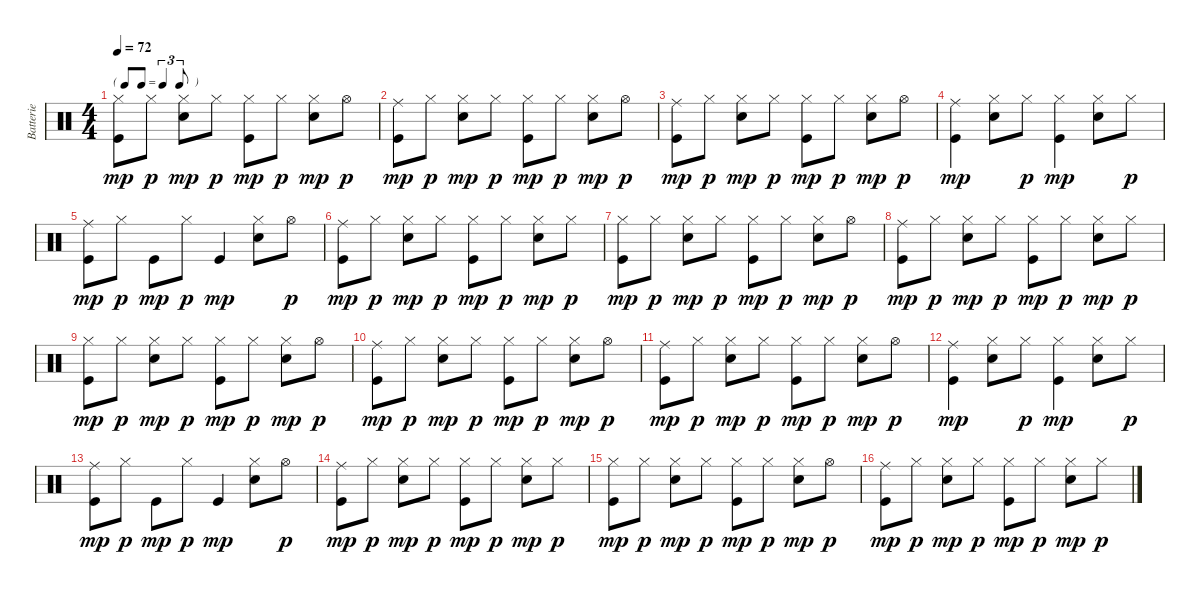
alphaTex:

\track ("Batterie" "Batterie") {instrument percussion}
\staff {score}
\articulation defaults
\ts (4 4)
\tf triplet8th
\tempo 72
\clef neutral
\ks c
("Hi-Hat (closed)" "Kick (hit)").8{dy mp} "Hi-Hat (closed)".8{dy p} ("Hi-Hat (closed)" "Snare (hit) 2").8{dy mp} "Hi-Hat (closed)".8{dy p} ("Hi-Hat (closed)" "Kick (hit)").8{dy mp} "Hi-Hat (closed)".8{dy p} ("Hi-Hat (closed)" "Snare (hit) 2").8{dy mp} "Hi-Hat (open)".8{dy p} |
("Ride (middle)" "Kick (hit)").8{dy mp} "Hi-Hat (closed)".8{dy p} ("Hi-Hat (closed)" "Snare (hit) 2").8{dy mp} "Hi-Hat (closed)".8{dy p} ("Hi-Hat (closed)" "Kick (hit)").8{dy mp} "Hi-Hat (closed)".8{dy p} ("Hi-Hat (closed)" "Snare (hit) 2").8{dy mp} "Hi-Hat (open)".8{dy p} |
("Ride (middle)" "Kick (hit)").8{dy mp} "Hi-Hat (closed)".8{dy p} ("Hi-Hat (closed)" "Snare (hit) 2").8{dy mp} "Hi-Hat (closed)".8{dy p} ("Hi-Hat (closed)" "Kick (hit)").8{dy mp} "Hi-Hat (closed)".8{dy p} ("Hi-Hat (closed)" "Snare (hit) 2").8{dy mp} "Hi-Hat (open)".8{dy p} |
("Ride (middle)" "Kick (hit)").4{dy mp} ("Hi-Hat (closed)" "Snare (hit) 2").8 "Hi-Hat (closed)".8{dy p} ("Hi-Hat (closed)" "Kick (hit)").4{dy mp} ("Hi-Hat (closed)" "Snare (hit) 2").8 "Hi-Hat (closed)".8{dy p} |
("Ride (middle)" "Kick (hit)").8{dy mp} "Hi-Hat (closed)".8{dy p} "Kick (hit)".8{dy mp} "Hi-Hat (closed)".8{dy p} "Kick (hit)".4{dy mp} ("Hi-Hat (closed)" "Snare (hit) 2").8 "Hi-Hat (open)".8{dy p} |
("Ride (middle)" "Kick (hit)").8{dy mp} "Hi-Hat (closed)".8{dy p} ("Hi-Hat (closed)" "Snare (hit) 2").8{dy mp} "Hi-Hat (closed)".8{dy p} ("Hi-Hat (closed)" "Kick (hit)").8{dy mp} "Hi-Hat (closed)".8{dy p} ("Hi-Hat (closed)" "Snare (hit) 2").8{dy mp} "Hi-Hat (closed)".8{dy p} |
("Hi-Hat (closed)" "Kick (hit)").8{dy mp} "Hi-Hat (closed)".8{dy p} ("Hi-Hat (closed)" "Snare (hit) 2").8{dy mp} "Hi-Hat (closed)".8{dy p} ("Hi-Hat (closed)" "Kick (hit)").8{dy mp} "Hi-Hat (closed)".8{dy p} ("Hi-Hat (closed)" "Snare (hit) 2").8{dy mp} "Hi-Hat (open)".8{dy p} |
("Ride (middle)" "Kick (hit)").8{dy mp} "Hi-Hat (closed)".8{dy p} ("Hi-Hat (closed)" "Snare (hit) 2").8{dy mp} "Hi-Hat (closed)".8{dy p} ("Hi-Hat (closed)" "Kick (hit)").8{dy mp} "Hi-Hat (closed)".8{dy p} ("Hi-Hat (closed)" "Snare (hit) 2").8{dy mp} "Hi-Hat (closed)".8{dy p} |
("Hi-Hat (closed)" "Kick (hit)").8{dy mp} "Hi-Hat (closed)".8{dy p} ("Hi-Hat (closed)" "Snare (hit) 2").8{dy mp} "Hi-Hat (closed)".8{dy p} ("Hi-Hat (closed)" "Kick (hit)").8{dy mp} "Hi-Hat (closed)".8{dy p} ("Hi-Hat (closed)" "Snare (hit) 2").8{dy mp} "Hi-Hat (open)".8{dy p} |
("Ride (middle)" "Kick (hit)").8{dy mp} "Hi-Hat (closed)".8{dy p} ("Hi-Hat (closed)" "Snare (hit) 2").8{dy mp} "Hi-Hat (closed)".8{dy p} ("Hi-Hat (closed)" "Kick (hit)").8{dy mp} "Hi-Hat (closed)".8{dy p} ("Hi-Hat (closed)" "Snare (hit) 2").8{dy mp} "Hi-Hat (open)".8{dy p} |
("Ride (middle)" "Kick (hit)").8{dy mp} "Hi-Hat (closed)".8{dy p} ("Hi-Hat (closed)" "Snare (hit) 2").8{dy mp} "Hi-Hat (closed)".8{dy p} ("Hi-Hat (closed)" "Kick (hit)").8{dy mp} "Hi-Hat (closed)".8{dy p} ("Hi-Hat (closed)" "Snare (hit) 2").8{dy mp} "Hi-Hat (open)".8{dy p} |
("Ride (middle)" "Kick (hit)").4{dy mp} ("Hi-Hat (closed)" "Snare (hit) 2").8 "Hi-Hat (closed)".8{dy p} ("Hi-Hat (closed)" "Kick (hit)").4{dy mp} ("Hi-Hat (closed)" "Snare (hit) 2").8 "Hi-Hat (closed)".8{dy p} |
("Ride (middle)" "Kick (hit)").8{dy mp} "Hi-Hat (closed)".8{dy p} "Kick (hit)".8{dy mp} "Hi-Hat (closed)".8{dy p} "Kick (hit)".4{dy mp} ("Hi-Hat (closed)" "Snare (hit) 2").8 "Hi-Hat (open)".8{dy p} |
("Ride (middle)" "Kick (hit)").8{dy mp} "Hi-Hat (closed)".8{dy p} ("Hi-Hat (closed)" "Snare (hit) 2").8{dy mp} "Hi-Hat (closed)".8{dy p} ("Hi-Hat (closed)" "Kick (hit)").8{dy mp} "Hi-Hat (closed)".8{dy p} ("Hi-Hat (closed)" "Snare (hit) 2").8{dy mp} "Hi-Hat (closed)".8{dy p} |
("Hi-Hat (closed)" "Kick (hit)").8{dy mp} "Hi-Hat (closed)".8{dy p} ("Hi-Hat (closed)" "Snare (hit) 2").8{dy mp} "Hi-Hat (closed)".8{dy p} ("Hi-Hat (closed)" "Kick (hit)").8{dy mp} "Hi-Hat (closed)".8{dy p} ("Hi-Hat (closed)" "Snare (hit) 2").8{dy mp} "Hi-Hat (open)".8{dy p} |
("Ride (middle)" "Kick (hit)").8{dy mp} "Hi-Hat (closed)".8{dy p} ("Hi-Hat (closed)" "Snare (hit) 2").8{dy mp} "Hi-Hat (closed)".8{dy p} ("Hi-Hat (closed)" "Kick (hit)").8{dy mp} "Hi-Hat (closed)".8{dy p} ("Hi-Hat (closed)" "Snare (hit) 2").8{dy mp} "Hi-Hat (closed)".8{dy p}
